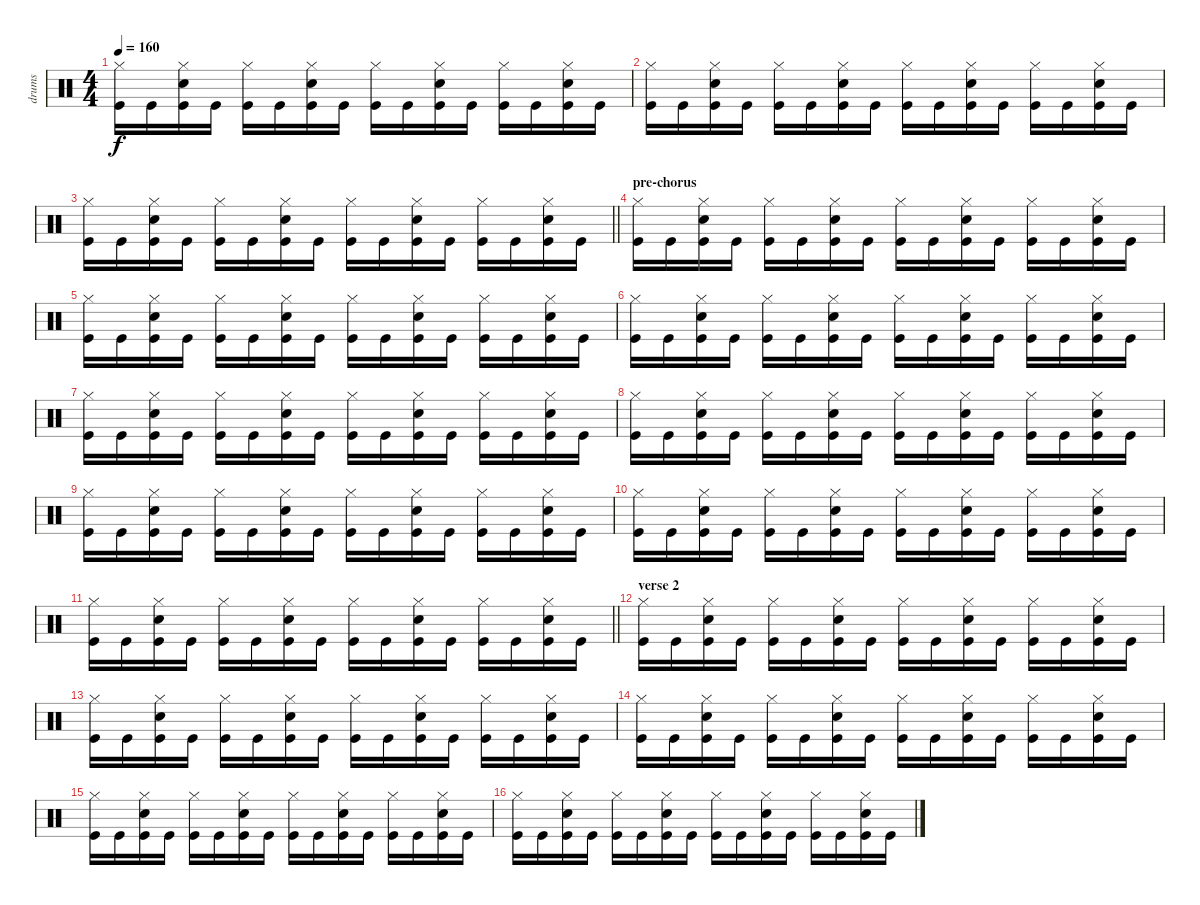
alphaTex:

\track ("drums" "drums") {instrument percussion}
\staff {score}
\articulation defaults
\ts (4 4)
\tempo 160
\clef neutral
\ks c
("Kick (hit)" "Hi-Hat (closed)").16{dy f} "Kick (hit)".16 ("Kick (hit)" "Hi-Hat (closed)" "Snare (hit) 2").16 "Kick (hit)".16 ("Kick (hit)" "Hi-Hat (closed)").16 "Kick (hit)".16 ("Kick (hit)" "Hi-Hat (closed)" "Snare (hit) 2").16 "Kick (hit)".16 ("Kick (hit)" "Hi-Hat (closed)").16 "Kick (hit)".16 ("Kick (hit)" "Hi-Hat (closed)" "Snare (hit) 2").16 "Kick (hit)".16 ("Kick (hit)" "Hi-Hat (closed)").16 "Kick (hit)".16 ("Kick (hit)" "Hi-Hat (closed)" "Snare (hit) 2").16 "Kick (hit)".16 |
("Kick (hit)" "Hi-Hat (closed)").16 "Kick (hit)".16 ("Kick (hit)" "Hi-Hat (closed)" "Snare (hit) 2").16 "Kick (hit)".16 ("Kick (hit)" "Hi-Hat (closed)").16 "Kick (hit)".16 ("Kick (hit)" "Hi-Hat (closed)" "Snare (hit) 2").16 "Kick (hit)".16 ("Kick (hit)" "Hi-Hat (closed)").16 "Kick (hit)".16 ("Kick (hit)" "Hi-Hat (closed)" "Snare (hit) 2").16 "Kick (hit)".16 ("Kick (hit)" "Hi-Hat (closed)").16 "Kick (hit)".16 ("Kick (hit)" "Hi-Hat (closed)" "Snare (hit) 2").16 "Kick (hit)".16 |
\barLineRight lightlight
("Kick (hit)" "Hi-Hat (closed)").16 "Kick (hit)".16 ("Kick (hit)" "Hi-Hat (closed)" "Snare (hit) 2").16 "Kick (hit)".16 ("Kick (hit)" "Hi-Hat (closed)").16 "Kick (hit)".16 ("Kick (hit)" "Hi-Hat (closed)" "Snare (hit) 2").16 "Kick (hit)".16 ("Kick (hit)" "Hi-Hat (closed)").16 "Kick (hit)".16 ("Kick (hit)" "Hi-Hat (closed)" "Snare (hit) 2").16 "Kick (hit)".16 ("Kick (hit)" "Hi-Hat (closed)").16 "Kick (hit)".16 ("Kick (hit)" "Hi-Hat (closed)" "Snare (hit) 2").16 "Kick (hit)".16 |
\section ("" "pre-chorus")
("Kick (hit)" "Hi-Hat (closed)").16 "Kick (hit)".16 ("Kick (hit)" "Hi-Hat (closed)" "Snare (hit) 2").16 "Kick (hit)".16 ("Kick (hit)" "Hi-Hat (closed)").16 "Kick (hit)".16 ("Kick (hit)" "Hi-Hat (closed)" "Snare (hit) 2").16 "Kick (hit)".16 ("Kick (hit)" "Hi-Hat (closed)").16 "Kick (hit)".16 ("Kick (hit)" "Hi-Hat (closed)" "Snare (hit) 2").16 "Kick (hit)".16 ("Kick (hit)" "Hi-Hat (closed)").16 "Kick (hit)".16 ("Kick (hit)" "Hi-Hat (closed)" "Snare (hit) 2").16 "Kick (hit)".16 |
("Kick (hit)" "Hi-Hat (closed)").16 "Kick (hit)".16 ("Kick (hit)" "Hi-Hat (closed)" "Snare (hit) 2").16 "Kick (hit)".16 ("Kick (hit)" "Hi-Hat (closed)").16 "Kick (hit)".16 ("Kick (hit)" "Hi-Hat (closed)" "Snare (hit) 2").16 "Kick (hit)".16 ("Kick (hit)" "Hi-Hat (closed)").16 "Kick (hit)".16 ("Kick (hit)" "Hi-Hat (closed)" "Snare (hit) 2").16 "Kick (hit)".16 ("Kick (hit)" "Hi-Hat (closed)").16 "Kick (hit)".16 ("Kick (hit)" "Hi-Hat (closed)" "Snare (hit) 2").16 "Kick (hit)".16 |
("Kick (hit)" "Hi-Hat (closed)").16 "Kick (hit)".16 ("Kick (hit)" "Hi-Hat (closed)" "Snare (hit) 2").16 "Kick (hit)".16 ("Kick (hit)" "Hi-Hat (closed)").16 "Kick (hit)".16 ("Kick (hit)" "Hi-Hat (closed)" "Snare (hit) 2").16 "Kick (hit)".16 ("Kick (hit)" "Hi-Hat (closed)").16 "Kick (hit)".16 ("Kick (hit)" "Hi-Hat (closed)" "Snare (hit) 2").16 "Kick (hit)".16 ("Kick (hit)" "Hi-Hat (closed)").16 "Kick (hit)".16 ("Kick (hit)" "Hi-Hat (closed)" "Snare (hit) 2").16 "Kick (hit)".16 |
("Kick (hit)" "Hi-Hat (closed)").16 "Kick (hit)".16 ("Kick (hit)" "Hi-Hat (closed)" "Snare (hit) 2").16 "Kick (hit)".16 ("Kick (hit)" "Hi-Hat (closed)").16 "Kick (hit)".16 ("Kick (hit)" "Hi-Hat (closed)" "Snare (hit) 2").16 "Kick (hit)".16 ("Kick (hit)" "Hi-Hat (closed)").16 "Kick (hit)".16 ("Kick (hit)" "Hi-Hat (closed)" "Snare (hit) 2").16 "Kick (hit)".16 ("Kick (hit)" "Hi-Hat (closed)").16 "Kick (hit)".16 ("Kick (hit)" "Hi-Hat (closed)" "Snare (hit) 2").16 "Kick (hit)".16 |
("Kick (hit)" "Hi-Hat (closed)").16 "Kick (hit)".16 ("Kick (hit)" "Hi-Hat (closed)" "Snare (hit) 2").16 "Kick (hit)".16 ("Kick (hit)" "Hi-Hat (closed)").16 "Kick (hit)".16 ("Kick (hit)" "Hi-Hat (closed)" "Snare (hit) 2").16 "Kick (hit)".16 ("Kick (hit)" "Hi-Hat (closed)").16 "Kick (hit)".16 ("Kick (hit)" "Hi-Hat (closed)" "Snare (hit) 2").16 "Kick (hit)".16 ("Kick (hit)" "Hi-Hat (closed)").16 "Kick (hit)".16 ("Kick (hit)" "Hi-Hat (closed)" "Snare (hit) 2").16 "Kick (hit)".16 |
("Kick (hit)" "Hi-Hat (closed)").16 "Kick (hit)".16 ("Kick (hit)" "Hi-Hat (closed)" "Snare (hit) 2").16 "Kick (hit)".16 ("Kick (hit)" "Hi-Hat (closed)").16 "Kick (hit)".16 ("Kick (hit)" "Hi-Hat (closed)" "Snare (hit) 2").16 "Kick (hit)".16 ("Kick (hit)" "Hi-Hat (closed)").16 "Kick (hit)".16 ("Kick (hit)" "Hi-Hat (closed)" "Snare (hit) 2").16 "Kick (hit)".16 ("Kick (hit)" "Hi-Hat (closed)").16 "Kick (hit)".16 ("Kick (hit)" "Hi-Hat (closed)" "Snare (hit) 2").16 "Kick (hit)".16 |
("Kick (hit)" "Hi-Hat (closed)").16 "Kick (hit)".16 ("Kick (hit)" "Hi-Hat (closed)" "Snare (hit) 2").16 "Kick (hit)".16 ("Kick (hit)" "Hi-Hat (closed)").16 "Kick (hit)".16 ("Kick (hit)" "Hi-Hat (closed)" "Snare (hit) 2").16 "Kick (hit)".16 ("Kick (hit)" "Hi-Hat (closed)").16 "Kick (hit)".16 ("Kick (hit)" "Hi-Hat (closed)" "Snare (hit) 2").16 "Kick (hit)".16 ("Kick (hit)" "Hi-Hat (closed)").16 "Kick (hit)".16 ("Kick (hit)" "Hi-Hat (closed)" "Snare (hit) 2").16 "Kick (hit)".16 |
\barLineRight lightlight
("Kick (hit)" "Hi-Hat (closed)").16 "Kick (hit)".16 ("Kick (hit)" "Hi-Hat (closed)" "Snare (hit) 2").16 "Kick (hit)".16 ("Kick (hit)" "Hi-Hat (closed)").16 "Kick (hit)".16 ("Kick (hit)" "Hi-Hat (closed)" "Snare (hit) 2").16 "Kick (hit)".16 ("Kick (hit)" "Hi-Hat (closed)").16 "Kick (hit)".16 ("Kick (hit)" "Hi-Hat (closed)" "Snare (hit) 2").16 "Kick (hit)".16 ("Kick (hit)" "Hi-Hat (closed)").16 "Kick (hit)".16 ("Kick (hit)" "Hi-Hat (closed)" "Snare (hit) 2").16 "Kick (hit)".16 |
\section ("" "verse 2")
("Kick (hit)" "Hi-Hat (closed)").16 "Kick (hit)".16 ("Kick (hit)" "Hi-Hat (closed)" "Snare (hit) 2").16 "Kick (hit)".16 ("Kick (hit)" "Hi-Hat (closed)").16 "Kick (hit)".16 ("Kick (hit)" "Hi-Hat (closed)" "Snare (hit) 2").16 "Kick (hit)".16 ("Kick (hit)" "Hi-Hat (closed)").16 "Kick (hit)".16 ("Kick (hit)" "Hi-Hat (closed)" "Snare (hit) 2").16 "Kick (hit)".16 ("Kick (hit)" "Hi-Hat (closed)").16 "Kick (hit)".16 ("Kick (hit)" "Hi-Hat (closed)" "Snare (hit) 2").16 "Kick (hit)".16 |
("Kick (hit)" "Hi-Hat (closed)").16 "Kick (hit)".16 ("Kick (hit)" "Hi-Hat (closed)" "Snare (hit) 2").16 "Kick (hit)".16 ("Kick (hit)" "Hi-Hat (closed)").16 "Kick (hit)".16 ("Kick (hit)" "Hi-Hat (closed)" "Snare (hit) 2").16 "Kick (hit)".16 ("Kick (hit)" "Hi-Hat (closed)").16 "Kick (hit)".16 ("Kick (hit)" "Hi-Hat (closed)" "Snare (hit) 2").16 "Kick (hit)".16 ("Kick (hit)" "Hi-Hat (closed)").16 "Kick (hit)".16 ("Kick (hit)" "Hi-Hat (closed)" "Snare (hit) 2").16 "Kick (hit)".16 |
("Kick (hit)" "Hi-Hat (closed)").16 "Kick (hit)".16 ("Kick (hit)" "Hi-Hat (closed)" "Snare (hit) 2").16 "Kick (hit)".16 ("Kick (hit)" "Hi-Hat (closed)").16 "Kick (hit)".16 ("Kick (hit)" "Hi-Hat (closed)" "Snare (hit) 2").16 "Kick (hit)".16 ("Kick (hit)" "Hi-Hat (closed)").16 "Kick (hit)".16 ("Kick (hit)" "Hi-Hat (closed)" "Snare (hit) 2").16 "Kick (hit)".16 ("Kick (hit)" "Hi-Hat (closed)").16 "Kick (hit)".16 ("Kick (hit)" "Hi-Hat (closed)" "Snare (hit) 2").16 "Kick (hit)".16 |
("Kick (hit)" "Hi-Hat (closed)").16 "Kick (hit)".16 ("Kick (hit)" "Hi-Hat (closed)" "Snare (hit) 2").16 "Kick (hit)".16 ("Kick (hit)" "Hi-Hat (closed)").16 "Kick (hit)".16 ("Kick (hit)" "Hi-Hat (closed)" "Snare (hit) 2").16 "Kick (hit)".16 ("Kick (hit)" "Hi-Hat (closed)").16 "Kick (hit)".16 ("Kick (hit)" "Hi-Hat (closed)" "Snare (hit) 2").16 "Kick (hit)".16 ("Kick (hit)" "Hi-Hat (closed)").16 "Kick (hit)".16 ("Kick (hit)" "Hi-Hat (closed)" "Snare (hit) 2").16 "Kick (hit)".16 |
("Kick (hit)" "Hi-Hat (closed)").16 "Kick (hit)".16 ("Kick (hit)" "Hi-Hat (closed)" "Snare (hit) 2").16 "Kick (hit)".16 ("Kick (hit)" "Hi-Hat (closed)").16 "Kick (hit)".16 ("Kick (hit)" "Hi-Hat (closed)" "Snare (hit) 2").16 "Kick (hit)".16 ("Kick (hit)" "Hi-Hat (closed)").16 "Kick (hit)".16 ("Kick (hit)" "Hi-Hat (closed)" "Snare (hit) 2").16 "Kick (hit)".16 ("Kick (hit)" "Hi-Hat (closed)").16 "Kick (hit)".16 ("Kick (hit)" "Hi-Hat (closed)" "Snare (hit) 2").16 "Kick (hit)".16
